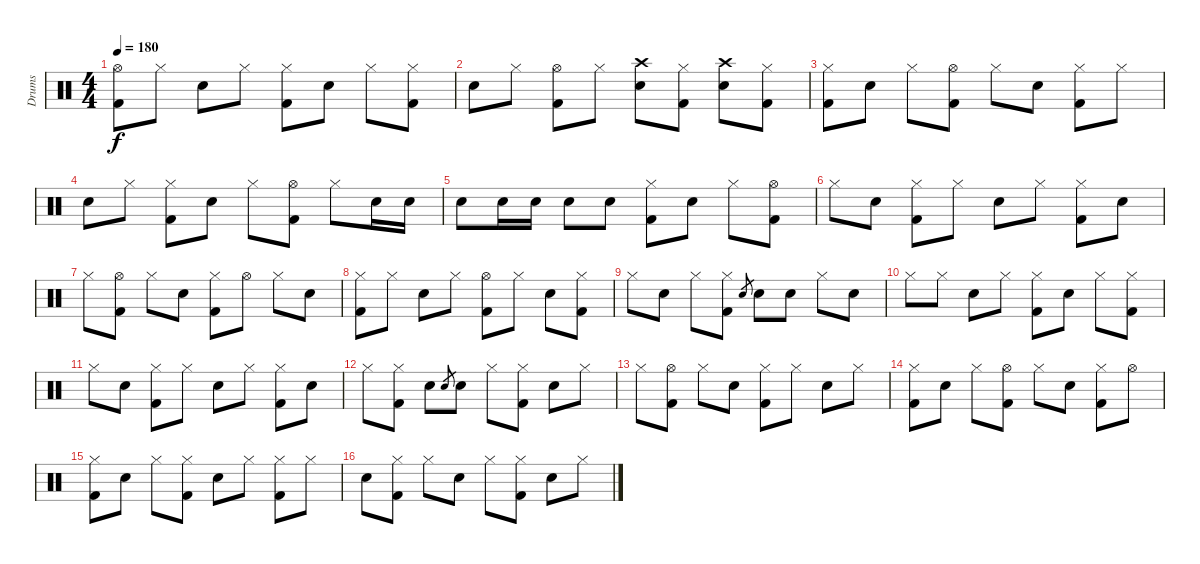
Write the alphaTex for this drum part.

\track ("Drums" "Drums") {instrument percussion}
\staff {score}
\articulation defaults
\ts (4 4)
\tempo 180
\clef neutral
\ks c
("Hi-Hat (open)" "Kick (hit) 2").8{dy f} "Hi-Hat (closed)".8 "Electric Snare (hit)".8 "Hi-Hat (closed)".8 ("Hi-Hat (closed)" "Kick (hit) 2").8 "Electric Snare (hit)".8 "Hi-Hat (closed)".8 ("Hi-Hat (closed)" "Kick (hit) 2").8 |
"Electric Snare (hit)".8 "Hi-Hat (closed)".8 ("Hi-Hat (open)" "Kick (hit) 2").8 "Hi-Hat (closed)".8 ("Crash high (hit)" "Electric Snare (hit)").8 ("Hi-Hat (closed)" "Kick (hit) 2").8 ("Crash high (hit)" "Electric Snare (hit)").8 ("Hi-Hat (closed)" "Kick (hit) 2").8 |
("Hi-Hat (closed)" "Kick (hit) 2").8 "Electric Snare (hit)".8 "Hi-Hat (closed)".8 ("Hi-Hat (open)" "Kick (hit) 2").8 "Hi-Hat (closed)".8 "Electric Snare (hit)".8 ("Hi-Hat (closed)" "Kick (hit) 2").8 "Hi-Hat (closed)".8 |
"Electric Snare (hit)".8 "Hi-Hat (closed)".8 ("Hi-Hat (closed)" "Kick (hit) 2").8 "Electric Snare (hit)".8 "Hi-Hat (closed)".8 ("Hi-Hat (open)" "Kick (hit) 2").8 "Hi-Hat (closed)".8 "Electric Snare (hit)".16 "Electric Snare (hit)".16 |
"Electric Snare (hit)".8 "Electric Snare (hit)".16 "Electric Snare (hit)".16 "Electric Snare (hit)".8 "Electric Snare (hit)".8 ("Hi-Hat (closed)" "Kick (hit) 2").8 "Electric Snare (hit)".8 "Hi-Hat (closed)".8 ("Hi-Hat (open)" "Kick (hit) 2").8 |
"Hi-Hat (closed)".8 "Electric Snare (hit)".8 ("Hi-Hat (closed)" "Kick (hit) 2").8 "Hi-Hat (closed)".8 "Electric Snare (hit)".8 "Hi-Hat (closed)".8 ("Hi-Hat (closed)" "Kick (hit) 2").8 "Electric Snare (hit)".8 |
"Hi-Hat (closed)".8 ("Hi-Hat (open)" "Kick (hit) 2").8 "Hi-Hat (closed)".8 "Electric Snare (hit)".8 ("Hi-Hat (closed)" "Kick (hit) 2").8 "Hi-Hat (open)".8 "Hi-Hat (closed)".8 "Electric Snare (hit)".8 |
("Hi-Hat (closed)" "Kick (hit) 2").8 "Hi-Hat (closed)".8 "Electric Snare (hit)".8 "Hi-Hat (closed)".8 ("Hi-Hat (open)" "Kick (hit) 2").8 "Hi-Hat (closed)".8 "Electric Snare (hit)".8 ("Hi-Hat (closed)" "Kick (hit) 2").8 |
"Hi-Hat (closed)".8 "Electric Snare (hit)".8 "Hi-Hat (closed)".8 ("Hi-Hat (closed)" "Kick (hit) 2").8 "Electric Snare (hit)".8{gr} "Electric Snare (hit)".8 "Electric Snare (hit)".8 "Hi-Hat (closed)".8 "Electric Snare (hit)".8 |
"Hi-Hat (closed)".8 "Hi-Hat (closed)".8 "Electric Snare (hit)".8 "Hi-Hat (closed)".8 ("Hi-Hat (closed)" "Kick (hit) 2").8 "Electric Snare (hit)".8 "Hi-Hat (closed)".8 ("Hi-Hat (closed)" "Kick (hit) 2").8 |
"Hi-Hat (closed)".8 "Electric Snare (hit)".8 ("Hi-Hat (closed)" "Kick (hit) 2").8 "Hi-Hat (closed)".8 "Electric Snare (hit)".8 "Hi-Hat (closed)".8 ("Hi-Hat (closed)" "Kick (hit) 2").8 "Electric Snare (hit)".8 |
"Hi-Hat (closed)".8 ("Hi-Hat (closed)" "Kick (hit) 2").8 "Electric Snare (hit)".8 "Electric Snare (hit)".8{gr} "Electric Snare (hit)".8 "Hi-Hat (closed)".8 ("Hi-Hat (closed)" "Kick (hit) 2").8 "Electric Snare (hit)".8 "Hi-Hat (closed)".8 |
"Hi-Hat (closed)".8 ("Hi-Hat (open)" "Kick (hit) 2").8 "Hi-Hat (closed)".8 "Electric Snare (hit)".8 ("Hi-Hat (closed)" "Kick (hit) 2").8 "Hi-Hat (closed)".8 "Electric Snare (hit)".8 "Hi-Hat (closed)".8 |
("Hi-Hat (closed)" "Kick (hit) 2").8 "Electric Snare (hit)".8 "Hi-Hat (closed)".8 ("Hi-Hat (open)" "Kick (hit) 2").8 "Hi-Hat (closed)".8 "Electric Snare (hit)".8 ("Hi-Hat (closed)" "Kick (hit) 2").8 "Hi-Hat (open)".8 |
("Hi-Hat (closed)" "Kick (hit) 2").8 "Electric Snare (hit)".8 "Hi-Hat (closed)".8 ("Hi-Hat (closed)" "Kick (hit) 2").8 "Electric Snare (hit)".8 "Hi-Hat (closed)".8 ("Hi-Hat (closed)" "Kick (hit) 2").8 "Hi-Hat (closed)".8 |
"Electric Snare (hit)".8 ("Hi-Hat (closed)" "Kick (hit) 2").8 "Hi-Hat (closed)".8 "Electric Snare (hit)".8 "Hi-Hat (closed)".8 ("Hi-Hat (closed)" "Kick (hit) 2").8 "Electric Snare (hit)".8 "Hi-Hat (closed)".8
